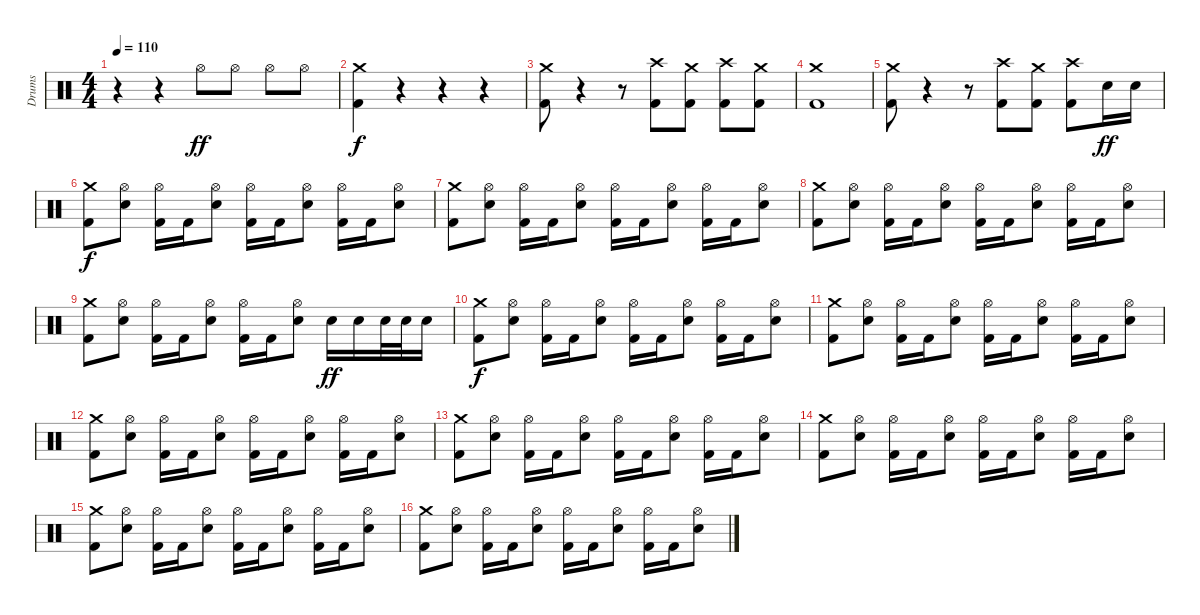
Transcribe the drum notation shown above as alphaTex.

\track ("Drums" "Drums") {instrument percussion}
\staff {score}
\articulation defaults
\ts (4 4)
\tempo 110
\clef neutral
\ks c
r.4{dy ff} r.4 "Hi-Hat (open)".8 "Hi-Hat (open)".8 "Hi-Hat (open)".8 "Hi-Hat (open)".8 |
("Crash medium (hit)" "Kick (hit) 2").4{dy f} r.4 r.4 r.4 |
("Crash medium (hit)" "Kick (hit) 2").8 r.4 r.8 ("Crash high (hit)" "Kick (hit) 2").8 ("Crash medium (hit)" "Kick (hit) 2").8 ("Crash high (hit)" "Kick (hit) 2").8 ("Crash medium (hit)" "Kick (hit) 2").8 |
("Crash medium (hit)" "Kick (hit) 2").1 |
("Crash medium (hit)" "Kick (hit) 2").8 r.4 r.8 ("Crash high (hit)" "Kick (hit) 2").8 ("Crash medium (hit)" "Kick (hit) 2").8 ("Crash high (hit)" "Kick (hit) 2").8 "Snare (hit) 2".16{dy ff} "Snare (hit) 2".16 |
("Crash medium (hit)" "Kick (hit) 2").8{dy f} ("Hi-Hat (open)" "Snare (hit) 2").8 ("Hi-Hat (open)" "Kick (hit) 2").16 "Kick (hit) 2".16 ("Hi-Hat (open)" "Snare (hit) 2").8 ("Hi-Hat (open)" "Kick (hit) 2").16 "Kick (hit) 2".16 ("Hi-Hat (open)" "Snare (hit) 2").8 ("Hi-Hat (open)" "Kick (hit) 2").16 "Kick (hit) 2".16 ("Hi-Hat (open)" "Snare (hit) 2").8 |
("Crash medium (hit)" "Kick (hit) 2").8 ("Hi-Hat (open)" "Snare (hit) 2").8 ("Hi-Hat (open)" "Kick (hit) 2").16 "Kick (hit) 2".16 ("Hi-Hat (open)" "Snare (hit) 2").8 ("Hi-Hat (open)" "Kick (hit) 2").16 "Kick (hit) 2".16 ("Hi-Hat (open)" "Snare (hit) 2").8 ("Hi-Hat (open)" "Kick (hit) 2").16 "Kick (hit) 2".16 ("Hi-Hat (open)" "Snare (hit) 2").8 |
("Crash medium (hit)" "Kick (hit) 2").8 ("Hi-Hat (open)" "Snare (hit) 2").8 ("Hi-Hat (open)" "Kick (hit) 2").16 "Kick (hit) 2".16 ("Hi-Hat (open)" "Snare (hit) 2").8 ("Hi-Hat (open)" "Kick (hit) 2").16 "Kick (hit) 2".16 ("Hi-Hat (open)" "Snare (hit) 2").8 ("Hi-Hat (open)" "Kick (hit) 2").16 "Kick (hit) 2".16 ("Hi-Hat (open)" "Snare (hit) 2").8 |
("Crash medium (hit)" "Kick (hit) 2").8 ("Hi-Hat (open)" "Snare (hit) 2").8 ("Hi-Hat (open)" "Kick (hit) 2").16 "Kick (hit) 2".16 ("Hi-Hat (open)" "Snare (hit) 2").8 ("Hi-Hat (open)" "Kick (hit) 2").16 "Kick (hit) 2".16 ("Hi-Hat (open)" "Snare (hit) 2").8 "Snare (hit) 2".16{dy ff} "Snare (hit) 2".16 "Snare (hit) 2".32 "Snare (hit) 2".32 "Snare (hit) 2".16 |
("Crash medium (hit)" "Kick (hit) 2").8{dy f} ("Hi-Hat (open)" "Snare (hit) 2").8 ("Hi-Hat (open)" "Kick (hit) 2").16 "Kick (hit) 2".16 ("Hi-Hat (open)" "Snare (hit) 2").8 ("Hi-Hat (open)" "Kick (hit) 2").16 "Kick (hit) 2".16 ("Hi-Hat (open)" "Snare (hit) 2").8 ("Hi-Hat (open)" "Kick (hit) 2").16 "Kick (hit) 2".16 ("Hi-Hat (open)" "Snare (hit) 2").8 |
("Crash medium (hit)" "Kick (hit) 2").8 ("Hi-Hat (open)" "Snare (hit) 2").8 ("Hi-Hat (open)" "Kick (hit) 2").16 "Kick (hit) 2".16 ("Hi-Hat (open)" "Snare (hit) 2").8 ("Hi-Hat (open)" "Kick (hit) 2").16 "Kick (hit) 2".16 ("Hi-Hat (open)" "Snare (hit) 2").8 ("Hi-Hat (open)" "Kick (hit) 2").16 "Kick (hit) 2".16 ("Hi-Hat (open)" "Snare (hit) 2").8 |
("Crash medium (hit)" "Kick (hit) 2").8 ("Hi-Hat (open)" "Snare (hit) 2").8 ("Hi-Hat (open)" "Kick (hit) 2").16 "Kick (hit) 2".16 ("Hi-Hat (open)" "Snare (hit) 2").8 ("Hi-Hat (open)" "Kick (hit) 2").16 "Kick (hit) 2".16 ("Hi-Hat (open)" "Snare (hit) 2").8 ("Hi-Hat (open)" "Kick (hit) 2").16 "Kick (hit) 2".16 ("Hi-Hat (open)" "Snare (hit) 2").8 |
("Crash medium (hit)" "Kick (hit) 2").8 ("Hi-Hat (open)" "Snare (hit) 2").8 ("Hi-Hat (open)" "Kick (hit) 2").16 "Kick (hit) 2".16 ("Hi-Hat (open)" "Snare (hit) 2").8 ("Hi-Hat (open)" "Kick (hit) 2").16 "Kick (hit) 2".16 ("Hi-Hat (open)" "Snare (hit) 2").8 ("Hi-Hat (open)" "Kick (hit) 2").16 "Kick (hit) 2".16 ("Hi-Hat (open)" "Snare (hit) 2").8 |
("Crash medium (hit)" "Kick (hit) 2").8 ("Hi-Hat (open)" "Snare (hit) 2").8 ("Hi-Hat (open)" "Kick (hit) 2").16 "Kick (hit) 2".16 ("Hi-Hat (open)" "Snare (hit) 2").8 ("Hi-Hat (open)" "Kick (hit) 2").16 "Kick (hit) 2".16 ("Hi-Hat (open)" "Snare (hit) 2").8 ("Hi-Hat (open)" "Kick (hit) 2").16 "Kick (hit) 2".16 ("Hi-Hat (open)" "Snare (hit) 2").8 |
("Crash medium (hit)" "Kick (hit) 2").8 ("Hi-Hat (open)" "Snare (hit) 2").8 ("Hi-Hat (open)" "Kick (hit) 2").16 "Kick (hit) 2".16 ("Hi-Hat (open)" "Snare (hit) 2").8 ("Hi-Hat (open)" "Kick (hit) 2").16 "Kick (hit) 2".16 ("Hi-Hat (open)" "Snare (hit) 2").8 ("Hi-Hat (open)" "Kick (hit) 2").16 "Kick (hit) 2".16 ("Hi-Hat (open)" "Snare (hit) 2").8 |
("Crash medium (hit)" "Kick (hit) 2").8 ("Hi-Hat (open)" "Snare (hit) 2").8 ("Hi-Hat (open)" "Kick (hit) 2").16 "Kick (hit) 2".16 ("Hi-Hat (open)" "Snare (hit) 2").8 ("Hi-Hat (open)" "Kick (hit) 2").16 "Kick (hit) 2".16 ("Hi-Hat (open)" "Snare (hit) 2").8 ("Hi-Hat (open)" "Kick (hit) 2").16 "Kick (hit) 2".16 ("Hi-Hat (open)" "Snare (hit) 2").8
